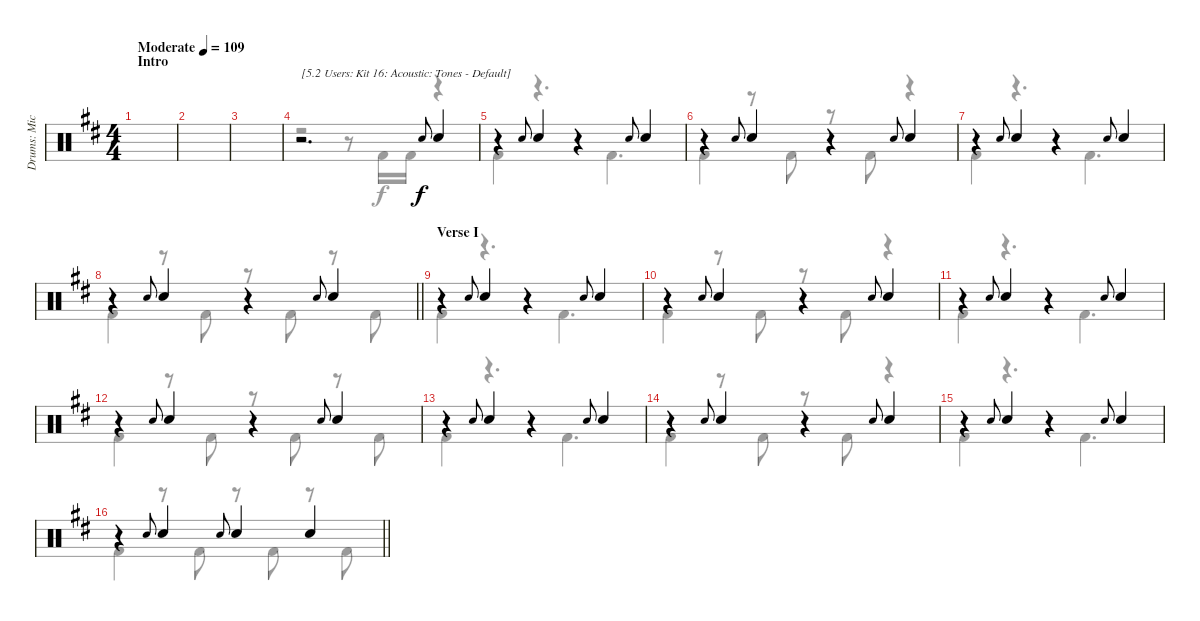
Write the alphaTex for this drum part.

\track ("Drums: Mick" "Drums: Mic") {instrument percussion}
\staff {score}
\articulation defaults
\voice
\ts (4 4)
\section ("" "Intro")
\tempo (109 "Moderate")
\clef neutral
\ks d
|
|
|
r.2{d txt "[5.2 Users: Kit 16: Acoustic: Tones - Default]"} "Electric Snare (hit)".8{gr onbeat} "Snare (hit) 2".4 |
r.4 "Electric Snare (hit)".8{gr onbeat} "Snare (hit) 2".4 r.4 "Electric Snare (hit)".8{gr onbeat} "Snare (hit) 2".4 |
r.4 "Electric Snare (hit)".8{gr onbeat} "Snare (hit) 2".4 r.4 "Electric Snare (hit)".8{gr onbeat} "Snare (hit) 2".4 |
r.4 "Electric Snare (hit)".8{gr onbeat} "Snare (hit) 2".4 r.4 "Electric Snare (hit)".8{gr onbeat} "Snare (hit) 2".4 |
\barLineRight lightlight
r.4 "Electric Snare (hit)".8{gr onbeat} "Snare (hit) 2".4 r.4 "Electric Snare (hit)".8{gr onbeat} "Snare (hit) 2".4 |
\section ("" "Verse I")
r.4 "Electric Snare (hit)".8{gr onbeat} "Snare (hit) 2".4 r.4 "Electric Snare (hit)".8{gr onbeat} "Snare (hit) 2".4 |
r.4 "Electric Snare (hit)".8{gr onbeat} "Snare (hit) 2".4 r.4 "Electric Snare (hit)".8{gr onbeat} "Snare (hit) 2".4 |
r.4 "Electric Snare (hit)".8{gr onbeat} "Snare (hit) 2".4 r.4 "Electric Snare (hit)".8{gr onbeat} "Snare (hit) 2".4 |
r.4 "Electric Snare (hit)".8{gr onbeat} "Snare (hit) 2".4 r.4 "Electric Snare (hit)".8{gr onbeat} "Snare (hit) 2".4 |
r.4 "Electric Snare (hit)".8{gr onbeat} "Snare (hit) 2".4 r.4 "Electric Snare (hit)".8{gr onbeat} "Snare (hit) 2".4 |
r.4 "Electric Snare (hit)".8{gr onbeat} "Snare (hit) 2".4 r.4 "Electric Snare (hit)".8{gr onbeat} "Snare (hit) 2".4 |
r.4 "Electric Snare (hit)".8{gr onbeat} "Snare (hit) 2".4 r.4 "Electric Snare (hit)".8{gr onbeat} "Snare (hit) 2".4 |
\barLineRight lightlight
r.4 "Electric Snare (hit)".8{gr onbeat} "Snare (hit) 2".4 "Electric Snare (hit)".8{gr onbeat} "Snare (hit) 2".4 "Snare (hit) 2".4
\voice
\clef neutral
\ottava regular
\simile none
\ks d
|
|
|
r.2 r.8 "Kick (hit) 2".16 "Kick (hit) 2".16 r.4 |
"Kick (hit) 2".4 r.4{d} "Kick (hit) 2".4{d} |
"Kick (hit) 2".4 r.8 "Kick (hit) 2".8 r.8 "Kick (hit) 2".8 r.4 |
"Kick (hit) 2".4 r.4{d} "Kick (hit) 2".4{d} |
\barLineRight lightlight "Kick (hit) 2".4
r.8 "Kick (hit) 2".8 r.8 "Kick (hit) 2".8 r.8 "Kick (hit) 2".8 |
"Kick (hit) 2".4 r.4{d} "Kick (hit) 2".4{d} |
"Kick (hit) 2".4 r.8 "Kick (hit) 2".8 r.8 "Kick (hit) 2".8 r.4 |
"Kick (hit) 2".4 r.4{d} "Kick (hit) 2".4{d} |
"Kick (hit) 2".4 r.8 "Kick (hit) 2".8 r.8 "Kick (hit) 2".8 r.8 "Kick (hit) 2".8 |
"Kick (hit) 2".4 r.4{d} "Kick (hit) 2".4{d} |
"Kick (hit) 2".4 r.8 "Kick (hit) 2".8 r.8 "Kick (hit) 2".8 r.4 |
"Kick (hit) 2".4 r.4{d} "Kick (hit) 2".4{d} |
\barLineRight lightlight "Kick (hit) 2".4
r.8 "Kick (hit) 2".8 r.8 "Kick (hit) 2".8 r.8 "Kick (hit) 2".8
